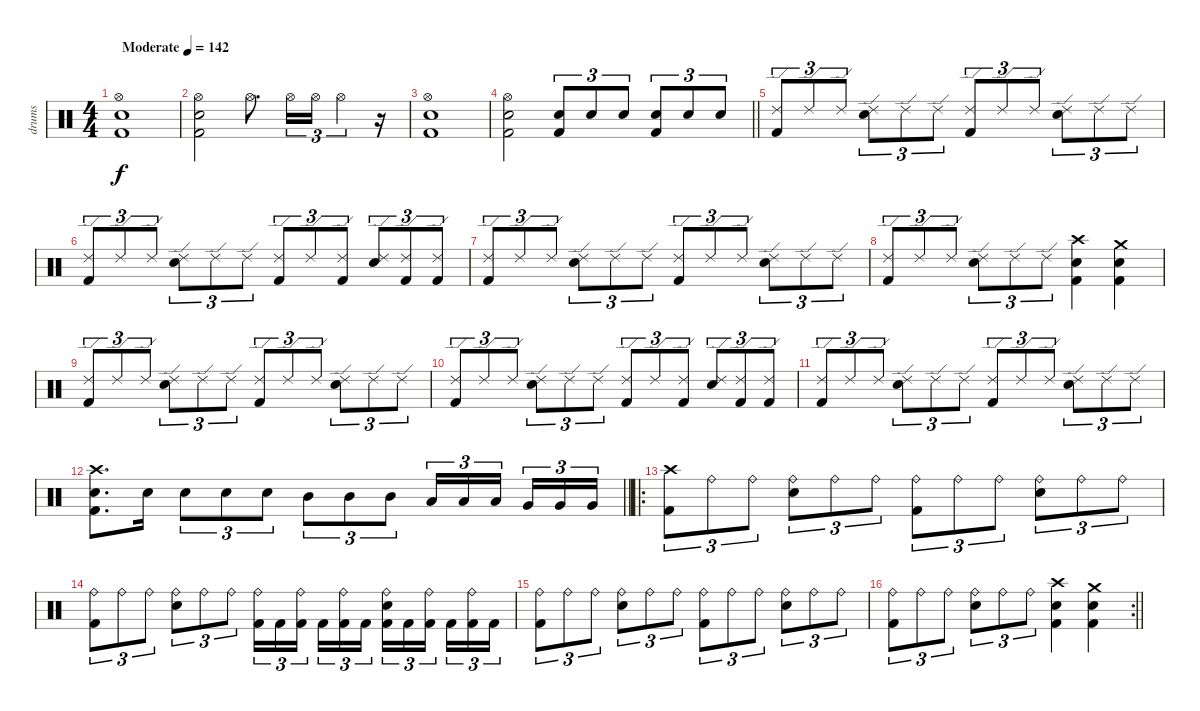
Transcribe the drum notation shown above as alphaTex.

\track ("drums" "drums") {instrument percussion}
\staff {score}
\articulation defaults
\ts (4 4)
\section ("" "")
\tempo (142 "Moderate")
\clef neutral
\ks c
("Hi-Hat (open)" "Electric Snare (hit)" "Kick (hit) 2").1{dy f} |
("Hi-Hat (open)" "Electric Snare (hit)" "Kick (hit) 2").2 "Hi-Hat (open)".8{d} "Hi-Hat (open)".16{tu (3 2)} "Hi-Hat (open)".16{tu (3 2)} "Hi-Hat (open)".4{tu (3 2)} r.16 |
("Hi-Hat (open)" "Electric Snare (hit)" "Kick (hit) 2").1 |
\barLineRight lightlight
("Hi-Hat (open)" "Electric Snare (hit)" "Kick (hit) 2").2 ("Electric Snare (hit)" "Kick (hit) 2").8{tu (3 2)} "Electric Snare (hit)".8{tu (3 2)} "Electric Snare (hit)".8{tu (3 2)} ("Electric Snare (hit)" "Kick (hit) 2").8{tu (3 2)} "Electric Snare (hit)".8{tu (3 2)} "Electric Snare (hit)".8{tu (3 2)} |
\section ("" "")
("Ride (edge) 2" "Kick (hit) 2").8{tu (3 2)} "Ride (edge) 2".8{tu (3 2)} "Ride (edge) 2".8{tu (3 2)} ("Ride (edge) 2" "Electric Snare (hit)").8{tu (3 2)} "Ride (edge) 2".8{tu (3 2)} "Ride (edge) 2".8{tu (3 2)} ("Ride (edge) 2" "Kick (hit) 2").8{tu (3 2)} "Ride (edge) 2".8{tu (3 2)} "Ride (edge) 2".8{tu (3 2)} ("Ride (edge) 2" "Electric Snare (hit)").8{tu (3 2)} "Ride (edge) 2".8{tu (3 2)} "Ride (edge) 2".8{tu (3 2)} |
("Ride (edge) 2" "Kick (hit) 2").8{tu (3 2)} "Ride (edge) 2".8{tu (3 2)} "Ride (edge) 2".8{tu (3 2)} ("Ride (edge) 2" "Electric Snare (hit)").8{tu (3 2)} "Ride (edge) 2".8{tu (3 2)} "Ride (edge) 2".8{tu (3 2)} ("Ride (edge) 2" "Kick (hit) 2").8{tu (3 2)} "Ride (edge) 2".8{tu (3 2)} ("Ride (edge) 2" "Kick (hit) 2").8{tu (3 2)} ("Ride (edge) 2" "Electric Snare (hit)").8{tu (3 2)} ("Ride (edge) 2" "Kick (hit) 2").8{tu (3 2)} ("Ride (edge) 2" "Kick (hit) 2").8{tu (3 2)} |
("Ride (edge) 2" "Kick (hit) 2").8{tu (3 2)} "Ride (edge) 2".8{tu (3 2)} "Ride (edge) 2".8{tu (3 2)} ("Ride (edge) 2" "Electric Snare (hit)").8{tu (3 2)} "Ride (edge) 2".8{tu (3 2)} "Ride (edge) 2".8{tu (3 2)} ("Ride (edge) 2" "Kick (hit) 2").8{tu (3 2)} "Ride (edge) 2".8{tu (3 2)} "Ride (edge) 2".8{tu (3 2)} ("Ride (edge) 2" "Electric Snare (hit)").8{tu (3 2)} "Ride (edge) 2".8{tu (3 2)} "Ride (edge) 2".8{tu (3 2)} |
("Ride (edge) 2" "Kick (hit) 2").8{tu (3 2)} "Ride (edge) 2".8{tu (3 2)} "Ride (edge) 2".8{tu (3 2)} ("Ride (edge) 2" "Electric Snare (hit)").8{tu (3 2)} "Ride (edge) 2".8{tu (3 2)} "Ride (edge) 2".8{tu (3 2)} ("Crash high (hit)" "Electric Snare (hit)" "Kick (hit) 2").4 ("Crash medium (hit)" "Electric Snare (hit)" "Kick (hit) 2").4 |
("Ride (edge) 2" "Kick (hit) 2").8{tu (3 2)} "Ride (edge) 2".8{tu (3 2)} "Ride (edge) 2".8{tu (3 2)} ("Ride (edge) 2" "Electric Snare (hit)").8{tu (3 2)} "Ride (edge) 2".8{tu (3 2)} "Ride (edge) 2".8{tu (3 2)} ("Ride (edge) 2" "Kick (hit) 2").8{tu (3 2)} "Ride (edge) 2".8{tu (3 2)} "Ride (edge) 2".8{tu (3 2)} ("Ride (edge) 2" "Electric Snare (hit)").8{tu (3 2)} "Ride (edge) 2".8{tu (3 2)} "Ride (edge) 2".8{tu (3 2)} |
("Ride (edge) 2" "Kick (hit) 2").8{tu (3 2)} "Ride (edge) 2".8{tu (3 2)} "Ride (edge) 2".8{tu (3 2)} ("Ride (edge) 2" "Electric Snare (hit)").8{tu (3 2)} "Ride (edge) 2".8{tu (3 2)} "Ride (edge) 2".8{tu (3 2)} ("Ride (edge) 2" "Kick (hit) 2").8{tu (3 2)} "Ride (edge) 2".8{tu (3 2)} ("Ride (edge) 2" "Kick (hit) 2").8{tu (3 2)} ("Ride (edge) 2" "Electric Snare (hit)").8{tu (3 2)} ("Ride (edge) 2" "Kick (hit) 2").8{tu (3 2)} ("Ride (edge) 2" "Kick (hit) 2").8{tu (3 2)} |
("Ride (edge) 2" "Kick (hit) 2").8{tu (3 2)} "Ride (edge) 2".8{tu (3 2)} "Ride (edge) 2".8{tu (3 2)} ("Ride (edge) 2" "Electric Snare (hit)").8{tu (3 2)} "Ride (edge) 2".8{tu (3 2)} "Ride (edge) 2".8{tu (3 2)} ("Ride (edge) 2" "Kick (hit) 2").8{tu (3 2)} "Ride (edge) 2".8{tu (3 2)} "Ride (edge) 2".8{tu (3 2)} ("Ride (edge) 2" "Electric Snare (hit)").8{tu (3 2)} "Ride (edge) 2".8{tu (3 2)} "Ride (edge) 2".8{tu (3 2)} |
\barLineRight lightlight
("Crash high (hit)" "Electric Snare (hit)" "Kick (hit) 2").8{d} "Electric Snare (hit)".16 "Electric Snare (hit)".8{tu (3 2)} "Electric Snare (hit)".8{tu (3 2)} "Electric Snare (hit)".8{tu (3 2)} "Mid Tom (hit)".8{tu (3 2)} "Mid Tom (hit)".8{tu (3 2)} "Mid Tom (hit)".8{tu (3 2)} "Low Tom (hit)".16{tu (3 2)} "Low Tom (hit)".16{tu (3 2)} "Low Tom (hit)".16{tu (3 2) beam splitsecondary} "Very Low Tom (hit)".16{tu (3 2)} "Very Low Tom (hit)".16{tu (3 2)} "Very Low Tom (hit)".16{tu (3 2)} |
\ro
\section ("" "")
("Crash high (hit)" "Kick (hit) 2").8{tu (3 2)} "Ride (bell)".8{tu (3 2)} "Ride (bell)".8{tu (3 2)} ("Ride (bell)" "Electric Snare (hit)").8{tu (3 2)} "Ride (bell)".8{tu (3 2)} "Ride (bell)".8{tu (3 2)} ("Ride (bell)" "Kick (hit) 2").8{tu (3 2)} "Ride (bell)".8{tu (3 2)} "Ride (bell)".8{tu (3 2)} ("Ride (bell)" "Electric Snare (hit)").8{tu (3 2)} "Ride (bell)".8{tu (3 2)} "Ride (bell)".8{tu (3 2)} |
("Ride (bell)" "Kick (hit) 2").8{tu (3 2)} "Ride (bell)".8{tu (3 2)} "Ride (bell)".8{tu (3 2)} ("Ride (bell)" "Electric Snare (hit)").8{tu (3 2)} "Ride (bell)".8{tu (3 2)} "Ride (bell)".8{tu (3 2)} ("Ride (bell)" "Kick (hit) 2").16{tu (3 2)} "Kick (hit) 2".16{tu (3 2)} ("Ride (bell)" "Kick (hit) 2").16{tu (3 2) beam splitsecondary} "Kick (hit) 2".16{tu (3 2)} ("Ride (bell)" "Kick (hit) 2").16{tu (3 2)} "Kick (hit) 2".16{tu (3 2)} ("Ride (bell)" "Electric Snare (hit)" "Kick (hit) 2").16{tu (3 2)} "Kick (hit) 2".16{tu (3 2)} ("Ride (bell)" "Kick (hit) 2").16{tu (3 2) beam splitsecondary} "Kick (hit) 2".16{tu (3 2)} ("Ride (bell)" "Kick (hit) 2").16{tu (3 2)} "Kick (hit) 2".16{tu (3 2)} |
("Ride (bell)" "Kick (hit) 2").8{tu (3 2)} "Ride (bell)".8{tu (3 2)} "Ride (bell)".8{tu (3 2)} ("Ride (bell)" "Electric Snare (hit)").8{tu (3 2)} "Ride (bell)".8{tu (3 2)} "Ride (bell)".8{tu (3 2)} ("Ride (bell)" "Kick (hit) 2").8{tu (3 2)} "Ride (bell)".8{tu (3 2)} "Ride (bell)".8{tu (3 2)} ("Ride (bell)" "Electric Snare (hit)").8{tu (3 2)} "Ride (bell)".8{tu (3 2)} "Ride (bell)".8{tu (3 2)} |
\rc 2
\barLineRight lightlight
("Ride (bell)" "Kick (hit) 2").8{tu (3 2)} "Ride (bell)".8{tu (3 2)} "Ride (bell)".8{tu (3 2)} ("Ride (bell)" "Electric Snare (hit)").8{tu (3 2)} "Ride (bell)".8{tu (3 2)} "Ride (bell)".8{tu (3 2)} ("Crash high (hit)" "Electric Snare (hit)" "Kick (hit) 2").4 ("Crash medium (hit)" "Electric Snare (hit)" "Kick (hit) 2").4
